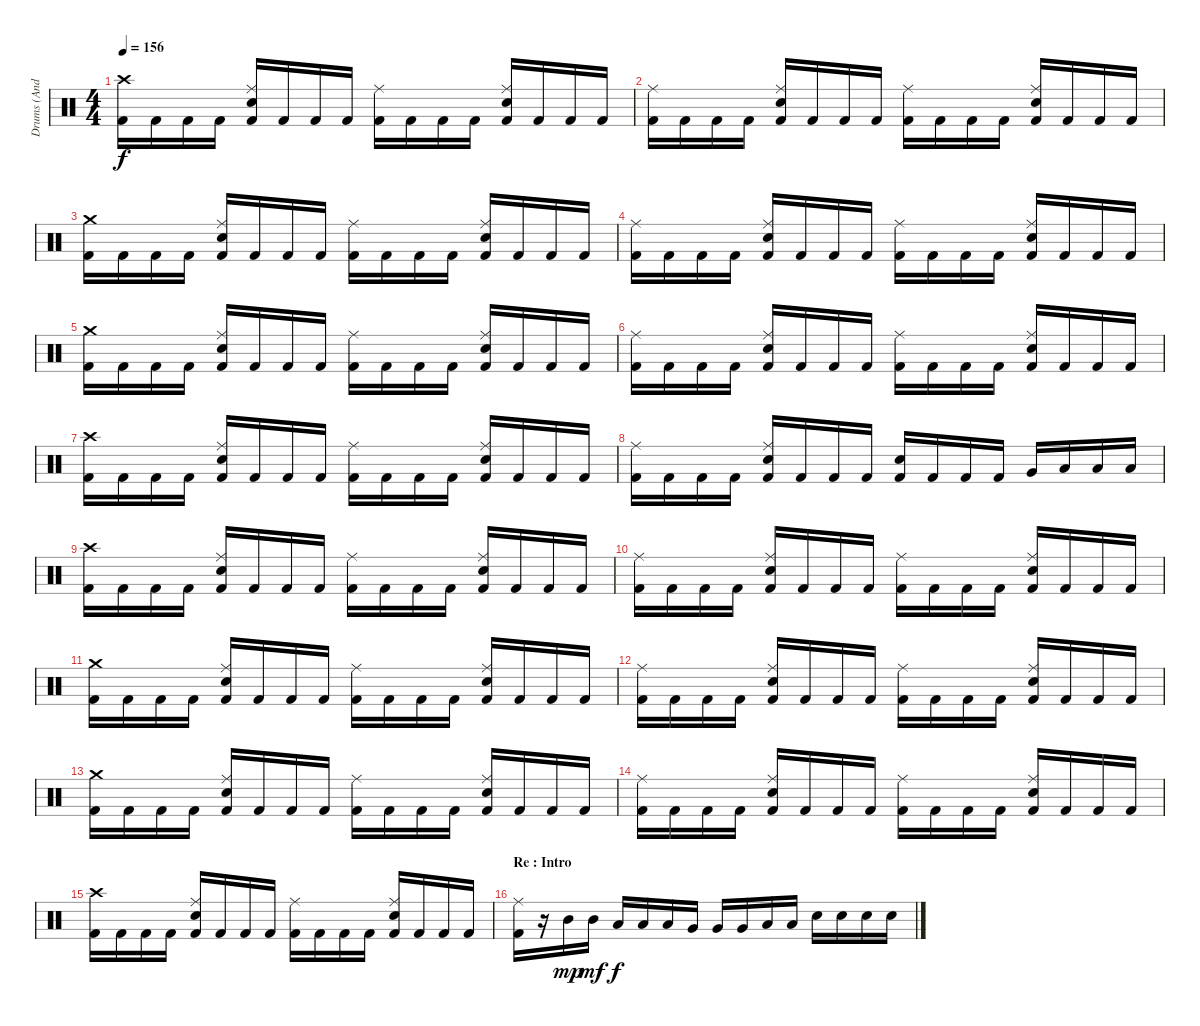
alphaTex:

\track ("Drums (Andy C)" "Drums (And") {instrument percussion}
\staff
\articulation defaults
\ts (4 4)
\tempo 156
\clef neutral
\ks c
("Crash high (hit)" "Kick (hit) 2").16{dy f} "Kick (hit) 2".16 "Kick (hit) 2".16 "Kick (hit) 2".16 ("Ride (middle)" "Kick (hit) 2" "Electric Snare (hit)").16 "Kick (hit) 2".16 "Kick (hit) 2".16 "Kick (hit) 2".16 ("Ride (middle)" "Kick (hit) 2").16 "Kick (hit) 2".16 "Kick (hit) 2".16 "Kick (hit) 2".16 ("Ride (middle)" "Kick (hit) 2" "Electric Snare (hit)").16 "Kick (hit) 2".16 "Kick (hit) 2".16 "Kick (hit) 2".16 |
("Ride (middle)" "Kick (hit) 2").16 "Kick (hit) 2".16 "Kick (hit) 2".16 "Kick (hit) 2".16 ("Ride (middle)" "Kick (hit) 2" "Electric Snare (hit)").16 "Kick (hit) 2".16 "Kick (hit) 2".16 "Kick (hit) 2".16 ("Ride (middle)" "Kick (hit) 2").16 "Kick (hit) 2".16 "Kick (hit) 2".16 "Kick (hit) 2".16 ("Ride (middle)" "Kick (hit) 2" "Electric Snare (hit)").16 "Kick (hit) 2".16 "Kick (hit) 2".16 "Kick (hit) 2".16 |
("Crash medium (hit)" "Kick (hit) 2").16 "Kick (hit) 2".16 "Kick (hit) 2".16 "Kick (hit) 2".16 ("Ride (middle)" "Kick (hit) 2" "Electric Snare (hit)").16 "Kick (hit) 2".16 "Kick (hit) 2".16 "Kick (hit) 2".16 ("Ride (middle)" "Kick (hit) 2").16 "Kick (hit) 2".16 "Kick (hit) 2".16 "Kick (hit) 2".16 ("Ride (middle)" "Kick (hit) 2" "Electric Snare (hit)").16 "Kick (hit) 2".16 "Kick (hit) 2".16 "Kick (hit) 2".16 |
("Ride (middle)" "Kick (hit) 2").16 "Kick (hit) 2".16 "Kick (hit) 2".16 "Kick (hit) 2".16 ("Ride (middle)" "Kick (hit) 2" "Electric Snare (hit)").16 "Kick (hit) 2".16 "Kick (hit) 2".16 "Kick (hit) 2".16 ("Ride (middle)" "Kick (hit) 2").16 "Kick (hit) 2".16 "Kick (hit) 2".16 "Kick (hit) 2".16 ("Ride (middle)" "Kick (hit) 2" "Electric Snare (hit)").16 "Kick (hit) 2".16 "Kick (hit) 2".16 "Kick (hit) 2".16 |
("Crash medium (hit)" "Kick (hit) 2").16 "Kick (hit) 2".16 "Kick (hit) 2".16 "Kick (hit) 2".16 ("Ride (middle)" "Kick (hit) 2" "Electric Snare (hit)").16 "Kick (hit) 2".16 "Kick (hit) 2".16 "Kick (hit) 2".16 ("Ride (middle)" "Kick (hit) 2").16 "Kick (hit) 2".16 "Kick (hit) 2".16 "Kick (hit) 2".16 ("Ride (middle)" "Kick (hit) 2" "Electric Snare (hit)").16 "Kick (hit) 2".16 "Kick (hit) 2".16 "Kick (hit) 2".16 |
("Ride (middle)" "Kick (hit) 2").16 "Kick (hit) 2".16 "Kick (hit) 2".16 "Kick (hit) 2".16 ("Ride (middle)" "Kick (hit) 2" "Electric Snare (hit)").16 "Kick (hit) 2".16 "Kick (hit) 2".16 "Kick (hit) 2".16 ("Ride (middle)" "Kick (hit) 2").16 "Kick (hit) 2".16 "Kick (hit) 2".16 "Kick (hit) 2".16 ("Ride (middle)" "Kick (hit) 2" "Electric Snare (hit)").16 "Kick (hit) 2".16 "Kick (hit) 2".16 "Kick (hit) 2".16 |
("Crash high (hit)" "Kick (hit) 2").16 "Kick (hit) 2".16 "Kick (hit) 2".16 "Kick (hit) 2".16 ("Ride (middle)" "Kick (hit) 2" "Electric Snare (hit)").16 "Kick (hit) 2".16 "Kick (hit) 2".16 "Kick (hit) 2".16 ("Ride (middle)" "Kick (hit) 2").16 "Kick (hit) 2".16 "Kick (hit) 2".16 "Kick (hit) 2".16 ("Ride (middle)" "Kick (hit) 2" "Electric Snare (hit)").16 "Kick (hit) 2".16 "Kick (hit) 2".16 "Kick (hit) 2".16 |
("Ride (middle)" "Kick (hit) 2").16 "Kick (hit) 2".16 "Kick (hit) 2".16 "Kick (hit) 2".16 ("Ride (middle)" "Kick (hit) 2" "Electric Snare (hit)").16 "Kick (hit) 2".16 "Kick (hit) 2".16 "Kick (hit) 2".16 ("Kick (hit) 2" "Electric Snare (hit)").16 "Kick (hit) 2".16 "Kick (hit) 2".16 "Kick (hit) 2".16 "Very Low Tom (hit)".16 "Low Floor Tom (hit)".16 "Low Floor Tom (hit)".16 "Low Floor Tom (hit)".16 |
("Crash high (hit)" "Kick (hit) 2").16 "Kick (hit) 2".16 "Kick (hit) 2".16 "Kick (hit) 2".16 ("Ride (middle)" "Kick (hit) 2" "Electric Snare (hit)").16 "Kick (hit) 2".16 "Kick (hit) 2".16 "Kick (hit) 2".16 ("Ride (middle)" "Kick (hit) 2").16 "Kick (hit) 2".16 "Kick (hit) 2".16 "Kick (hit) 2".16 ("Ride (middle)" "Kick (hit) 2" "Electric Snare (hit)").16 "Kick (hit) 2".16 "Kick (hit) 2".16 "Kick (hit) 2".16 |
("Ride (middle)" "Kick (hit) 2").16 "Kick (hit) 2".16 "Kick (hit) 2".16 "Kick (hit) 2".16 ("Ride (middle)" "Kick (hit) 2" "Electric Snare (hit)").16 "Kick (hit) 2".16 "Kick (hit) 2".16 "Kick (hit) 2".16 ("Ride (middle)" "Kick (hit) 2").16 "Kick (hit) 2".16 "Kick (hit) 2".16 "Kick (hit) 2".16 ("Ride (middle)" "Kick (hit) 2" "Electric Snare (hit)").16 "Kick (hit) 2".16 "Kick (hit) 2".16 "Kick (hit) 2".16 |
("Crash medium (hit)" "Kick (hit) 2").16 "Kick (hit) 2".16 "Kick (hit) 2".16 "Kick (hit) 2".16 ("Ride (middle)" "Kick (hit) 2" "Electric Snare (hit)").16 "Kick (hit) 2".16 "Kick (hit) 2".16 "Kick (hit) 2".16 ("Ride (middle)" "Kick (hit) 2").16 "Kick (hit) 2".16 "Kick (hit) 2".16 "Kick (hit) 2".16 ("Ride (middle)" "Kick (hit) 2" "Electric Snare (hit)").16 "Kick (hit) 2".16 "Kick (hit) 2".16 "Kick (hit) 2".16 |
("Ride (middle)" "Kick (hit) 2").16 "Kick (hit) 2".16 "Kick (hit) 2".16 "Kick (hit) 2".16 ("Ride (middle)" "Kick (hit) 2" "Electric Snare (hit)").16 "Kick (hit) 2".16 "Kick (hit) 2".16 "Kick (hit) 2".16 ("Ride (middle)" "Kick (hit) 2").16 "Kick (hit) 2".16 "Kick (hit) 2".16 "Kick (hit) 2".16 ("Ride (middle)" "Kick (hit) 2" "Electric Snare (hit)").16 "Kick (hit) 2".16 "Kick (hit) 2".16 "Kick (hit) 2".16 |
("Crash medium (hit)" "Kick (hit) 2").16 "Kick (hit) 2".16 "Kick (hit) 2".16 "Kick (hit) 2".16 ("Ride (middle)" "Kick (hit) 2" "Electric Snare (hit)").16 "Kick (hit) 2".16 "Kick (hit) 2".16 "Kick (hit) 2".16 ("Ride (middle)" "Kick (hit) 2").16 "Kick (hit) 2".16 "Kick (hit) 2".16 "Kick (hit) 2".16 ("Ride (middle)" "Kick (hit) 2" "Electric Snare (hit)").16 "Kick (hit) 2".16 "Kick (hit) 2".16 "Kick (hit) 2".16 |
("Ride (middle)" "Kick (hit) 2").16 "Kick (hit) 2".16 "Kick (hit) 2".16 "Kick (hit) 2".16 ("Ride (middle)" "Kick (hit) 2" "Electric Snare (hit)").16 "Kick (hit) 2".16 "Kick (hit) 2".16 "Kick (hit) 2".16 ("Ride (middle)" "Kick (hit) 2").16 "Kick (hit) 2".16 "Kick (hit) 2".16 "Kick (hit) 2".16 ("Ride (middle)" "Kick (hit) 2" "Electric Snare (hit)").16 "Kick (hit) 2".16 "Kick (hit) 2".16 "Kick (hit) 2".16 |
("Crash high (hit)" "Kick (hit) 2").16 "Kick (hit) 2".16 "Kick (hit) 2".16 "Kick (hit) 2".16 ("Ride (middle)" "Kick (hit) 2" "Electric Snare (hit)").16 "Kick (hit) 2".16 "Kick (hit) 2".16 "Kick (hit) 2".16 ("Ride (middle)" "Kick (hit) 2").16 "Kick (hit) 2".16 "Kick (hit) 2".16 "Kick (hit) 2".16 ("Ride (middle)" "Kick (hit) 2" "Electric Snare (hit)").16 "Kick (hit) 2".16 "Kick (hit) 2".16 "Kick (hit) 2".16 |
\section ("" "Re : Intro")
("Ride (middle)" "Kick (hit) 2").16 r.16 "Mid Tom (hit)".16{dy mp} "Mid Tom (hit)".16{dy mf} "Low Tom (hit)".16{dy f} "Low Tom (hit)".16 "Low Tom (hit)".16 "Very Low Tom (hit)".16 "Very Low Tom (hit)".16 "Very Low Tom (hit)".16 "Low Floor Tom (hit)".16 "Low Floor Tom (hit)".16 "Electric Snare (hit)".16 "Electric Snare (hit)".16 "Electric Snare (hit)".16 "Electric Snare (hit)".16
